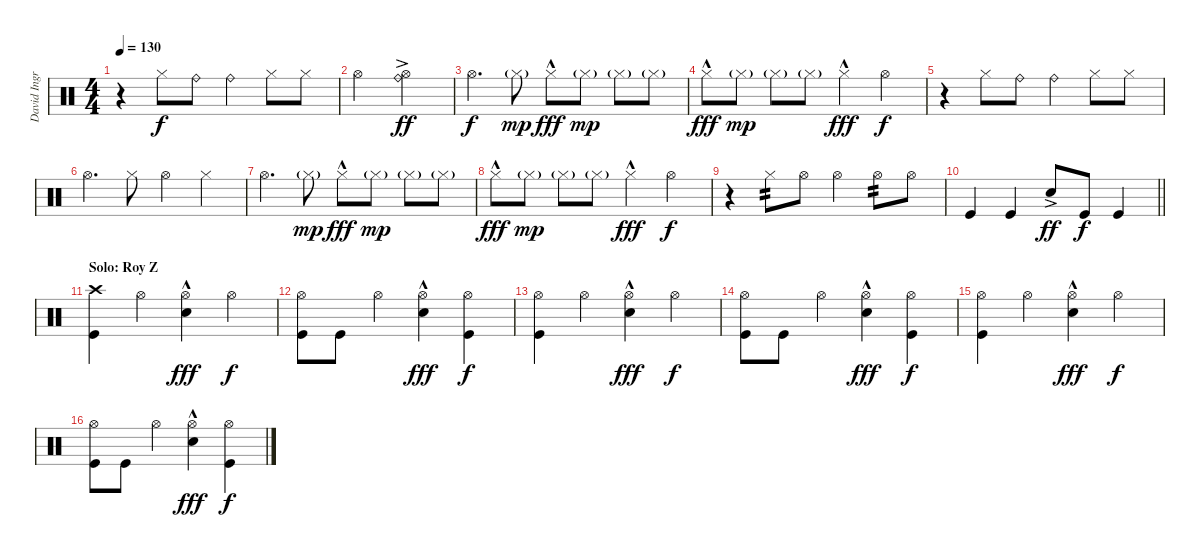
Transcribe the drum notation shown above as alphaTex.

\track ("David Ingraham" "David Ingr") {instrument percussion}
\staff {score}
\articulation defaults
\ts (4 4)
\tempo 130
\clef neutral
\ks c
r.4{dy f} "Hi-Hat (closed)".8 "Ride (bell)".8 "Ride (bell)".4 "Hi-Hat (closed)".8 "Hi-Hat (closed)".8 |
"Hi-Hat (open)".2 ("Hi-Hat (open)"{ac} "Ride (bell)").2{dy ff} |
"Hi-Hat (open)".4{d dy f} "Hi-Hat (closed)"{g}.8{dy mp} "Hi-Hat (closed)"{hac}.8{dy fff} "Hi-Hat (closed)"{g}.8{dy mp} "Hi-Hat (closed)"{g}.8 "Hi-Hat (closed)"{g}.8 |
"Hi-Hat (closed)"{hac}.8{dy fff} "Hi-Hat (closed)"{g}.8{dy mp} "Hi-Hat (closed)"{g}.8 "Hi-Hat (closed)"{g}.8 "Hi-Hat (closed)"{hac}.4{dy fff} "Hi-Hat (open)".4{dy f} |
r.4 "Hi-Hat (closed)".8 "Ride (bell)".8 "Ride (bell)".4 "Hi-Hat (closed)".8 "Hi-Hat (closed)".8 |
"Hi-Hat (open)".4{d} "Hi-Hat (closed)".8 "Hi-Hat (open)".4 "Hi-Hat (closed)".4 |
"Hi-Hat (open)".4{d} "Hi-Hat (closed)"{g}.8{dy mp} "Hi-Hat (closed)"{hac}.8{dy fff} "Hi-Hat (closed)"{g}.8{dy mp} "Hi-Hat (closed)"{g}.8 "Hi-Hat (closed)"{g}.8 |
"Hi-Hat (closed)"{hac}.8{dy fff} "Hi-Hat (closed)"{g}.8{dy mp} "Hi-Hat (closed)"{g}.8 "Hi-Hat (closed)"{g}.8 "Hi-Hat (closed)"{hac}.4{dy fff} "Hi-Hat (open)".4{dy f} |
r.4 "Hi-Hat (closed)".8{tp 2} "Hi-Hat (open)".8 "Hi-Hat (open)".4 "Hi-Hat (open)".8{tp 2} "Hi-Hat (open)".8 |
\barLineRight lightlight "Kick (hit)".4{volume 10} "Kick (hit)".4 "Snare (hit) 2"{ac}.8{dy ff} "Kick (hit)".8{dy f} "Kick (hit)".4
|
\section ("" "Solo: Roy Z")
("Crash high (hit)" "Kick (hit)").4 "Hi-Hat (open)".4 ("Hi-Hat (open)" "Snare (hit) 2"{hac}).4{dy fff} "Hi-Hat (open)".4{dy f} |
("Hi-Hat (open)" "Kick (hit)").8 "Kick (hit)".8 "Hi-Hat (open)".4 ("Hi-Hat (open)" "Snare (hit) 2"{hac}).4{dy fff} ("Hi-Hat (open)" "Kick (hit)").4{dy f} |
("Hi-Hat (open)" "Kick (hit)").4 "Hi-Hat (open)".4 ("Hi-Hat (open)" "Snare (hit) 2"{hac}).4{dy fff} "Hi-Hat (open)".4{dy f} |
("Hi-Hat (open)" "Kick (hit)").8 "Kick (hit)".8 "Hi-Hat (open)".4 ("Hi-Hat (open)" "Snare (hit) 2"{hac}).4{dy fff} ("Hi-Hat (open)" "Kick (hit)").4{dy f} |
("Hi-Hat (open)" "Kick (hit)").4 "Hi-Hat (open)".4 ("Hi-Hat (open)" "Snare (hit) 2"{hac}).4{dy fff} "Hi-Hat (open)".4{dy f} |
("Hi-Hat (open)" "Kick (hit)").8 "Kick (hit)".8 "Hi-Hat (open)".4 ("Hi-Hat (open)" "Snare (hit) 2"{hac}).4{dy fff} ("Hi-Hat (open)" "Kick (hit)").4{dy f}
